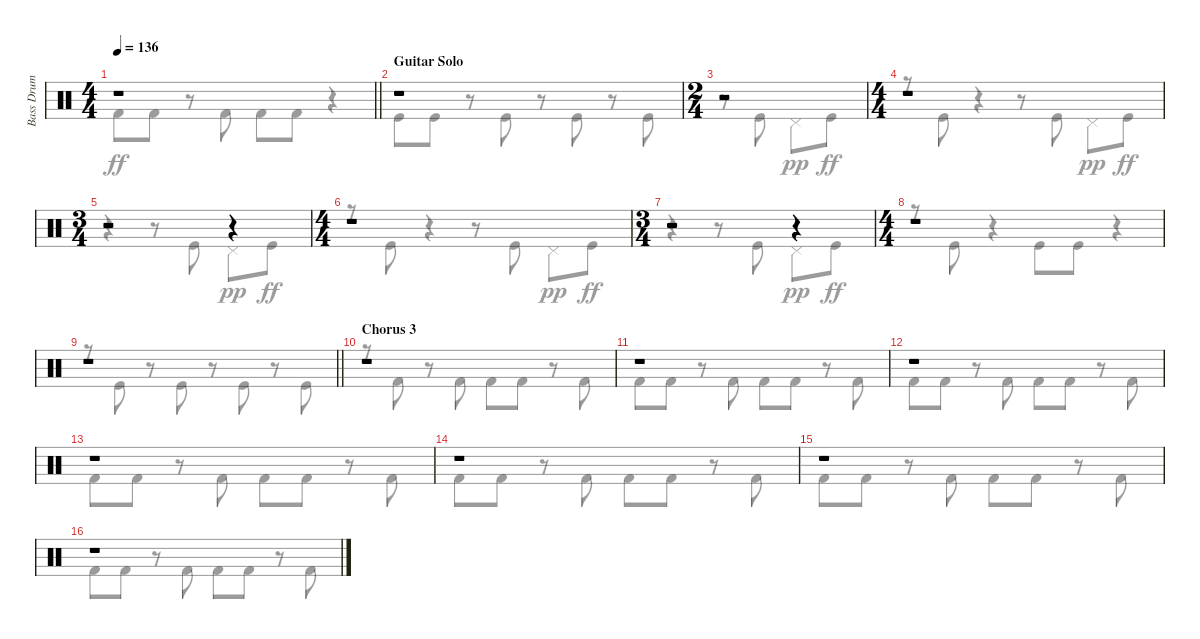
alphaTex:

\track ("Bass Drum" "Bass Drum") {instrument percussion}
\staff {score}
\articulation defaults
\voice
\ts (4 4)
\tempo 136
\clef neutral
\barLineRight lightlight
\ks c
r.1{dy f} |
\section ("" "Guitar Solo")
r.1 |
\ts (2 4)
r.2 |
\ts (4 4)
r.1 |
\ts (3 4)
r.2 r.4 |
\ts (4 4)
r.1 |
\ts (3 4)
r.2 r.4 |
\ts (4 4)
r.1 |
\barLineRight lightlight
r.1 |
\section ("" "Chorus 3")
r.1 |
r.1 |
r.1 |
r.1 |
r.1 |
r.1 |
r.1
\voice
\clef neutral
\ottava regular
\simile none
\barLineRight lightlight
\ks c "Kick (hit) 2".8{dy ff} "Kick (hit) 2".8
r.8 "Kick (hit) 2".8 "Kick (hit) 2".8 "Kick (hit) 2".8 r.4 |
"Kick (hit)".8 "Kick (hit)".8 r.8 "Kick (hit)".8 r.8 "Kick (hit)".8 r.8 "Kick (hit)".8 |
r.8 "Kick (hit)".8 "Pedal Hi-Hat (hit)".8{dy pp} "Kick (hit)".8{dy ff} |
r.8 "Kick (hit)".8 r.4 r.8 "Kick (hit)".8 "Pedal Hi-Hat (hit)".8{dy pp} "Kick (hit)".8{dy ff} |
r.4 r.8 "Kick (hit)".8 "Pedal Hi-Hat (hit)".8{dy pp} "Kick (hit)".8{dy ff} |
r.8 "Kick (hit)".8 r.4 r.8 "Kick (hit)".8 "Pedal Hi-Hat (hit)".8{dy pp} "Kick (hit)".8{dy ff} |
r.4 r.8 "Kick (hit)".8 "Pedal Hi-Hat (hit)".8{dy pp} "Kick (hit)".8{dy ff} |
r.8 "Kick (hit)".8 r.4 "Kick (hit)".8 "Kick (hit)".8 r.4 |
\barLineRight lightlight
r.8 "Kick (hit)".8 r.8 "Kick (hit)".8 r.8 "Kick (hit)".8 r.8 "Kick (hit)".8 |
r.8 "Kick (hit) 2".8 r.8 "Kick (hit) 2".8 "Kick (hit) 2".8 "Kick (hit) 2".8 r.8 "Kick (hit) 2".8 |
"Kick (hit) 2".8 "Kick (hit) 2".8 r.8 "Kick (hit) 2".8 "Kick (hit) 2".8 "Kick (hit) 2".8 r.8 "Kick (hit) 2".8 |
"Kick (hit) 2".8 "Kick (hit) 2".8 r.8 "Kick (hit) 2".8 "Kick (hit) 2".8 "Kick (hit) 2".8 r.8 "Kick (hit) 2".8 |
"Kick (hit) 2".8 "Kick (hit) 2".8 r.8 "Kick (hit) 2".8 "Kick (hit) 2".8 "Kick (hit) 2".8 r.8 "Kick (hit) 2".8 |
"Kick (hit) 2".8 "Kick (hit) 2".8 r.8 "Kick (hit) 2".8 "Kick (hit) 2".8 "Kick (hit) 2".8 r.8 "Kick (hit) 2".8 |
"Kick (hit) 2".8 "Kick (hit) 2".8 r.8 "Kick (hit) 2".8 "Kick (hit) 2".8 "Kick (hit) 2".8 r.8 "Kick (hit) 2".8 |
"Kick (hit) 2".8 "Kick (hit) 2".8 r.8 "Kick (hit) 2".8 "Kick (hit) 2".8 "Kick (hit) 2".8 r.8 "Kick (hit) 2".8
